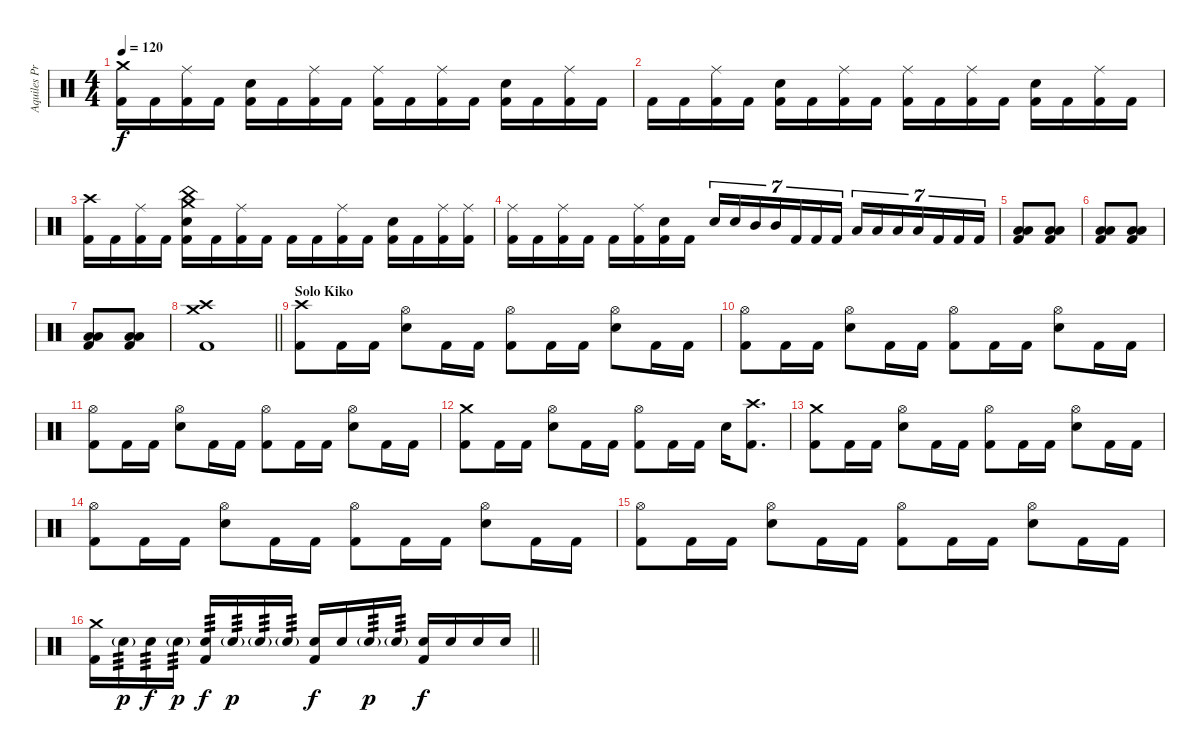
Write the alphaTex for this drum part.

\track ("Aquiles Priester" "Aquiles Pr") {instrument percussion}
\staff {score}
\articulation defaults
\ts (4 4)
\tempo 120
\clef neutral
\ks c
("Crash medium (hit)" "Kick (hit) 2").16{dy f} "Kick (hit) 2".16 ("Ride (middle)" "Kick (hit) 2").16 "Kick (hit) 2".16 ("Electric Snare (hit)" "Kick (hit) 2").16 "Kick (hit) 2".16 ("Ride (middle)" "Kick (hit) 2").16 "Kick (hit) 2".16 ("Ride (middle)" "Kick (hit) 2").16 "Kick (hit) 2".16 ("Ride (middle)" "Kick (hit) 2").16 "Kick (hit) 2".16 ("Electric Snare (hit)" "Kick (hit) 2").16 "Kick (hit) 2".16 ("Ride (middle)" "Kick (hit) 2").16 "Kick (hit) 2".16 |
"Kick (hit) 2".16 "Kick (hit) 2".16 ("Ride (middle)" "Kick (hit) 2").16 "Kick (hit) 2".16 ("Electric Snare (hit)" "Kick (hit) 2").16 "Kick (hit) 2".16 ("Ride (middle)" "Kick (hit) 2").16 "Kick (hit) 2".16 ("Ride (middle)" "Kick (hit) 2").16 "Kick (hit) 2".16 ("Ride (middle)" "Kick (hit) 2").16 "Kick (hit) 2".16 ("Electric Snare (hit)" "Kick (hit) 2").16 "Kick (hit) 2".16 ("Ride (middle)" "Kick (hit) 2").16 "Kick (hit) 2".16 |
("Crash high (hit)" "Kick (hit) 2").16 "Kick (hit) 2".16 ("Ride (middle)" "Kick (hit) 2").16 "Kick (hit) 2".16 ("Crash medium (hit)" "China (hit)" "Electric Snare (hit)" "Kick (hit) 2").16 "Kick (hit) 2".16 ("Ride (middle)" "Kick (hit) 2").16 "Kick (hit) 2".16 "Kick (hit) 2".16 "Kick (hit) 2".16 ("Ride (middle)" "Kick (hit) 2").16 "Kick (hit) 2".16 ("Electric Snare (hit)" "Kick (hit) 2").16 "Kick (hit) 2".16 ("Ride (middle)" "Kick (hit) 2").16 ("Ride (middle)" "Kick (hit) 2").16 |
("Ride (middle)" "Kick (hit) 2").16 "Kick (hit) 2".16 ("Ride (middle)" "Kick (hit) 2").16 "Kick (hit) 2".16 "Kick (hit) 2".16 ("Ride (middle)" "Kick (hit) 2").16 ("Electric Snare (hit)" "Kick (hit) 2").16 "Kick (hit) 2".16 "Electric Snare (hit)".16{tu (7 4)} "Electric Snare (hit)".16{tu (7 4)} "Mid Tom (hit)".16{tu (7 4)} "Mid Tom (hit)".16{tu (7 4)} "Kick (hit) 2".16{tu (7 4)} "Kick (hit) 2".16{tu (7 4)} "Kick (hit) 2".16{tu (7 4)} "Low Tom (hit)".16{tu (7 4)} "Low Tom (hit)".16{tu (7 4)} "Low Tom (hit)".16{tu (7 4)} "Low Tom (hit)".16{tu (7 4)} "Kick (hit) 2".16{tu (7 4)} "Kick (hit) 2".16{tu (7 4)} "Kick (hit) 2".16{tu (7 4)} |
("Low Tom (hit)" "Low Floor Tom (hit)" "Kick (hit) 2").8 ("Low Tom (hit)" "Low Floor Tom (hit)" "Kick (hit) 2").8 |
("Low Tom (hit)" "Low Floor Tom (hit)" "Kick (hit) 2").8 ("Low Tom (hit)" "Low Floor Tom (hit)" "Kick (hit) 2").8 |
("Low Tom (hit)" "Low Floor Tom (hit)" "Kick (hit) 2").8 ("Low Tom (hit)" "Low Floor Tom (hit)" "Kick (hit) 2").8 |
\barLineRight lightlight
("Crash medium (hit)" "Crash high (hit)" "Kick (hit) 2").1 |
\section ("" "Solo Kiko")
("Crash high (hit)" "Kick (hit) 2").8 "Kick (hit) 2".16 "Kick (hit) 2".16 ("Hi-Hat (open)" "Electric Snare (hit)").8 "Kick (hit) 2".16 "Kick (hit) 2".16 ("Hi-Hat (open)" "Kick (hit) 2").8 "Kick (hit) 2".16 "Kick (hit) 2".16 ("Hi-Hat (open)" "Electric Snare (hit)").8 "Kick (hit) 2".16 "Kick (hit) 2".16 |
("Hi-Hat (open)" "Kick (hit) 2").8 "Kick (hit) 2".16 "Kick (hit) 2".16 ("Hi-Hat (open)" "Electric Snare (hit)").8 "Kick (hit) 2".16 "Kick (hit) 2".16 ("Hi-Hat (open)" "Kick (hit) 2").8 "Kick (hit) 2".16 "Kick (hit) 2".16 ("Hi-Hat (open)" "Electric Snare (hit)").8 "Kick (hit) 2".16 "Kick (hit) 2".16 |
("Hi-Hat (open)" "Kick (hit) 2").8 "Kick (hit) 2".16 "Kick (hit) 2".16 ("Hi-Hat (open)" "Electric Snare (hit)").8 "Kick (hit) 2".16 "Kick (hit) 2".16 ("Hi-Hat (open)" "Kick (hit) 2").8 "Kick (hit) 2".16 "Kick (hit) 2".16 ("Hi-Hat (open)" "Electric Snare (hit)").8 "Kick (hit) 2".16 "Kick (hit) 2".16 |
("Crash medium (hit)" "Kick (hit) 2").8 "Kick (hit) 2".16 "Kick (hit) 2".16 ("Hi-Hat (open)" "Electric Snare (hit)").8 "Kick (hit) 2".16 "Kick (hit) 2".16 ("Hi-Hat (open)" "Kick (hit) 2").8 "Kick (hit) 2".16 "Kick (hit) 2".16 "Electric Snare (hit)".16 ("Crash high (hit)" "Kick (hit) 2").8{d} |
("Crash medium (hit)" "Kick (hit) 2").8 "Kick (hit) 2".16 "Kick (hit) 2".16 ("Hi-Hat (open)" "Electric Snare (hit)").8 "Kick (hit) 2".16 "Kick (hit) 2".16 ("Hi-Hat (open)" "Kick (hit) 2").8 "Kick (hit) 2".16 "Kick (hit) 2".16 ("Hi-Hat (open)" "Electric Snare (hit)").8 "Kick (hit) 2".16 "Kick (hit) 2".16 |
("Hi-Hat (open)" "Kick (hit) 2").8 "Kick (hit) 2".16 "Kick (hit) 2".16 ("Hi-Hat (open)" "Electric Snare (hit)").8 "Kick (hit) 2".16 "Kick (hit) 2".16 ("Hi-Hat (open)" "Kick (hit) 2").8 "Kick (hit) 2".16 "Kick (hit) 2".16 ("Hi-Hat (open)" "Electric Snare (hit)").8 "Kick (hit) 2".16 "Kick (hit) 2".16 |
("Hi-Hat (open)" "Kick (hit) 2").8 "Kick (hit) 2".16 "Kick (hit) 2".16 ("Hi-Hat (open)" "Electric Snare (hit)").8 "Kick (hit) 2".16 "Kick (hit) 2".16 ("Hi-Hat (open)" "Kick (hit) 2").8 "Kick (hit) 2".16 "Kick (hit) 2".16 ("Hi-Hat (open)" "Electric Snare (hit)").8 "Kick (hit) 2".16 "Kick (hit) 2".16 |
\barLineRight lightlight
("Crash medium (hit)" "Kick (hit) 2").16 "Electric Snare (hit)"{g}.16{tp 3 dy p} "Electric Snare (hit)".16{tp 3 dy f} "Electric Snare (hit)"{g}.16{tp 3 dy p} ("Electric Snare (hit)" "Kick (hit) 2").16{tp 3 dy f} "Electric Snare (hit)"{g}.16{tp 3 dy p} "Electric Snare (hit)"{g}.16{tp 3} "Electric Snare (hit)"{g}.16{tp 3} ("Electric Snare (hit)" "Kick (hit) 2").16{dy f} "Electric Snare (hit)".16 "Electric Snare (hit)"{g}.16{tp 3 dy p} "Electric Snare (hit)"{g}.16{tp 3} ("Electric Snare (hit)" "Kick (hit) 2").16{dy f} "Electric Snare (hit)".16 "Electric Snare (hit)".16 "Electric Snare (hit)".16
